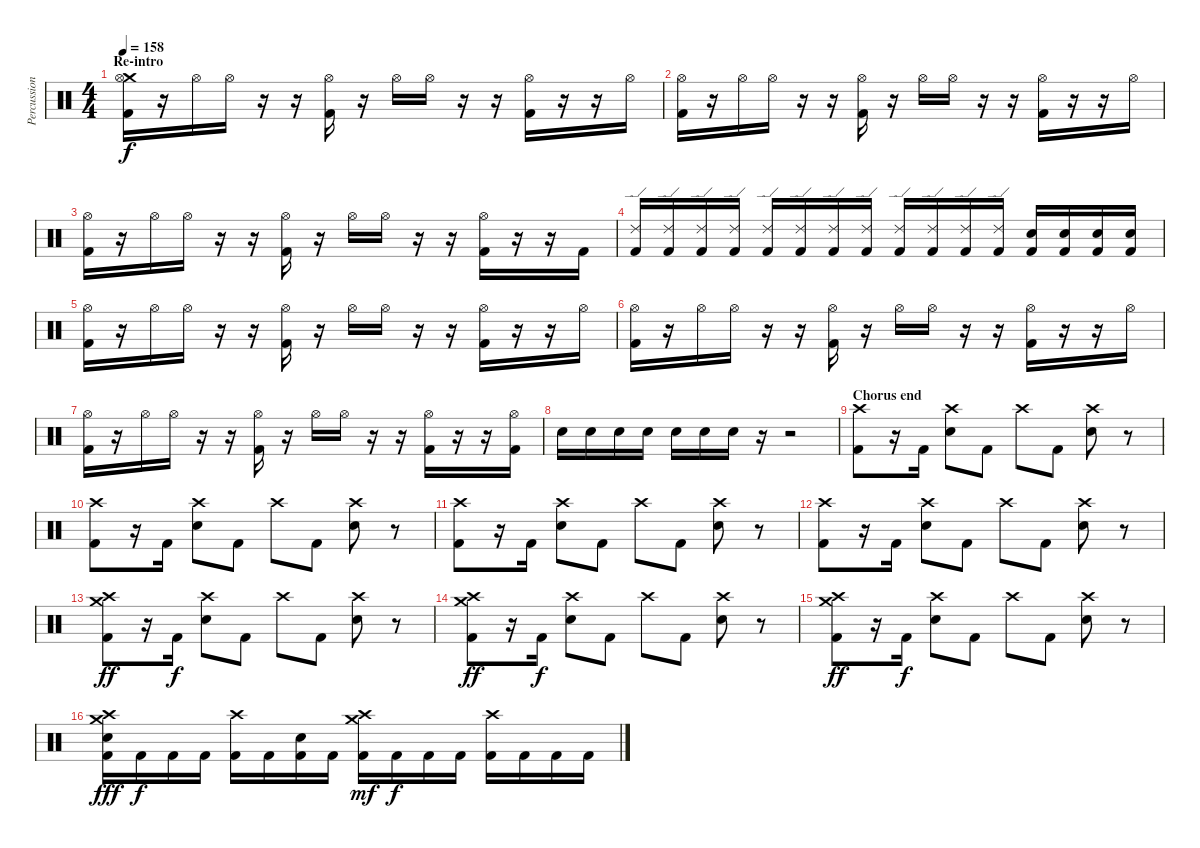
\track ("Percussions" "Percussion") {instrument percussion}
\staff {score}
\articulation defaults
\ts (4 4)
\section ("" "Re-intro")
\tempo 158
\clef neutral
\ks c
("Crash medium (hit)" "Hi-Hat (open)" "Kick (hit) 2").16{dy f} r.16 "Hi-Hat (open)".16 "Hi-Hat (open)".16 r.16 r.16 ("Hi-Hat (open)" "Kick (hit) 2").16 r.16 "Hi-Hat (open)".16 "Hi-Hat (open)".16 r.16 r.16 ("Hi-Hat (open)" "Kick (hit) 2").16 r.16 r.16 "Hi-Hat (open)".16 |
("Hi-Hat (open)" "Kick (hit) 2").16 r.16 "Hi-Hat (open)".16 "Hi-Hat (open)".16 r.16 r.16 ("Hi-Hat (open)" "Kick (hit) 2").16 r.16 "Hi-Hat (open)".16 "Hi-Hat (open)".16 r.16 r.16 ("Hi-Hat (open)" "Kick (hit) 2").16 r.16 r.16 "Hi-Hat (open)".16 |
("Hi-Hat (open)" "Kick (hit) 2").16 r.16 "Hi-Hat (open)".16 "Hi-Hat (open)".16 r.16 r.16 ("Hi-Hat (open)" "Kick (hit) 2").16 r.16 "Hi-Hat (open)".16 "Hi-Hat (open)".16 r.16 r.16 ("Hi-Hat (open)" "Kick (hit) 2").16 r.16 r.16 "Kick (hit) 2".16 |
("Ride (edge) 2" "Kick (hit) 2").16 ("Ride (edge) 2" "Kick (hit) 2").16 ("Ride (edge) 2" "Kick (hit) 2").16 ("Ride (edge) 2" "Kick (hit) 2").16 ("Ride (edge) 2" "Kick (hit) 2").16 ("Ride (edge) 2" "Kick (hit) 2").16 ("Ride (edge) 2" "Kick (hit) 2").16 ("Ride (edge) 2" "Kick (hit) 2").16 ("Ride (edge) 2" "Kick (hit) 2").16 ("Ride (edge) 2" "Kick (hit) 2").16 ("Ride (edge) 2" "Kick (hit) 2").16 ("Ride (edge) 2" "Kick (hit) 2").16 ("Electric Snare (hit)" "Kick (hit) 2").16 ("Electric Snare (hit)" "Kick (hit) 2").16 ("Electric Snare (hit)" "Kick (hit) 2").16 ("Electric Snare (hit)" "Kick (hit) 2").16 |
("Hi-Hat (open)" "Kick (hit) 2").16 r.16 "Hi-Hat (open)".16 "Hi-Hat (open)".16 r.16 r.16 ("Hi-Hat (open)" "Kick (hit) 2").16 r.16 "Hi-Hat (open)".16 "Hi-Hat (open)".16 r.16 r.16 ("Hi-Hat (open)" "Kick (hit) 2").16 r.16 r.16 "Hi-Hat (open)".16 |
("Hi-Hat (open)" "Kick (hit) 2").16 r.16 "Hi-Hat (open)".16 "Hi-Hat (open)".16 r.16 r.16 ("Hi-Hat (open)" "Kick (hit) 2").16 r.16 "Hi-Hat (open)".16 "Hi-Hat (open)".16 r.16 r.16 ("Hi-Hat (open)" "Kick (hit) 2").16 r.16 r.16 "Hi-Hat (open)".16 |
("Hi-Hat (open)" "Kick (hit) 2").16 r.16 "Hi-Hat (open)".16 "Hi-Hat (open)".16 r.16 r.16 ("Hi-Hat (open)" "Kick (hit) 2").16 r.16 "Hi-Hat (open)".16 "Hi-Hat (open)".16 r.16 r.16 ("Hi-Hat (open)" "Kick (hit) 2").16 r.16 r.16 ("Hi-Hat (open)" "Kick (hit) 2").16 |
"Electric Snare (hit)".16 "Electric Snare (hit)".16 "Electric Snare (hit)".16 "Electric Snare (hit)".16 "Electric Snare (hit)".16 "Electric Snare (hit)".16 "Electric Snare (hit)".16 r.16 r.2 |
\section ("" "Chorus end")
("Crash high (hit)" "Kick (hit) 2").8 r.16 "Kick (hit) 2".16 ("Crash high (hit)" "Electric Snare (hit)").8 "Kick (hit) 2".8 "Crash high (hit)".8 "Kick (hit) 2".8 ("Crash high (hit)" "Electric Snare (hit)").8 r.8 |
("Crash high (hit)" "Kick (hit) 2").8 r.16 "Kick (hit) 2".16 ("Crash high (hit)" "Electric Snare (hit)").8 "Kick (hit) 2".8 "Crash high (hit)".8 "Kick (hit) 2".8 ("Crash high (hit)" "Electric Snare (hit)").8 r.8 |
("Crash high (hit)" "Kick (hit) 2").8 r.16 "Kick (hit) 2".16 ("Crash high (hit)" "Electric Snare (hit)").8 "Kick (hit) 2".8 "Crash high (hit)".8 "Kick (hit) 2".8 ("Crash high (hit)" "Electric Snare (hit)").8 r.8 |
("Crash high (hit)" "Kick (hit) 2").8 r.16 "Kick (hit) 2".16 ("Crash high (hit)" "Electric Snare (hit)").8 "Kick (hit) 2".8 "Crash high (hit)".8 "Kick (hit) 2".8 ("Crash high (hit)" "Electric Snare (hit)").8 r.8 |
("Crash medium (hit)" "Crash high (hit)" "Kick (hit) 2").8{dy ff} r.16 "Kick (hit) 2".16{dy f} ("Crash high (hit)" "Electric Snare (hit)").8 "Kick (hit) 2".8 "Crash high (hit)".8 "Kick (hit) 2".8 ("Crash high (hit)" "Electric Snare (hit)").8 r.8 |
("Crash medium (hit)" "Crash high (hit)" "Kick (hit) 2").8{dy ff} r.16 "Kick (hit) 2".16{dy f} ("Crash high (hit)" "Electric Snare (hit)").8 "Kick (hit) 2".8 "Crash high (hit)".8 "Kick (hit) 2".8 ("Crash high (hit)" "Electric Snare (hit)").8 r.8 |
("Crash medium (hit)" "Crash high (hit)" "Kick (hit) 2").8{dy ff} r.16 "Kick (hit) 2".16{dy f} ("Crash high (hit)" "Electric Snare (hit)").8 "Kick (hit) 2".8 "Crash high (hit)".8 "Kick (hit) 2".8 ("Crash high (hit)" "Electric Snare (hit)").8 r.8 |
("Crash medium (hit)" "Crash high (hit)" "Electric Snare (hit)" "Kick (hit) 2").16{dy fff} "Kick (hit) 2".16{dy f} "Kick (hit) 2".16 "Kick (hit) 2".16 ("Crash high (hit)" "Kick (hit) 2").16 "Kick (hit) 2".16 ("Electric Snare (hit)" "Kick (hit) 2").16 "Kick (hit) 2".16 ("Crash medium (hit)" "Crash high (hit)" "Kick (hit) 2").16{dy mf} "Kick (hit) 2".16{dy f} "Kick (hit) 2".16 "Kick (hit) 2".16 ("Crash high (hit)" "Kick (hit) 2").16 "Kick (hit) 2".16 "Kick (hit) 2".16 "Kick (hit) 2".16
